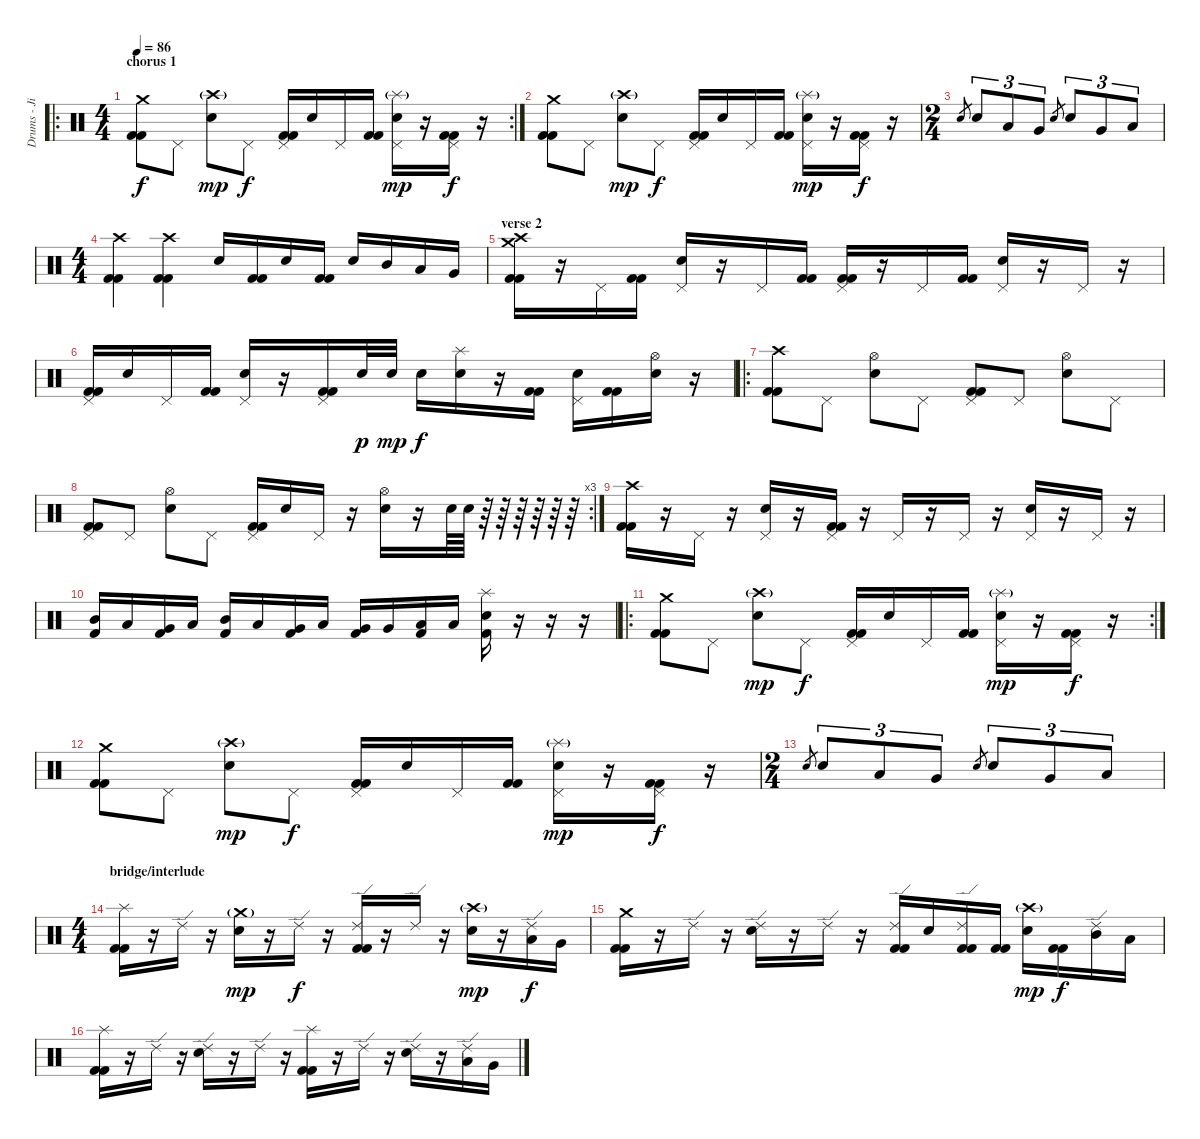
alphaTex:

\track ("Drums - Jimmy" "Drums - Ji") {instrument percussion}
\staff {score}
\articulation defaults
\ro
\rc 2
\ts (4 4)
\section ("" "chorus 1")
\tempo 86
\clef neutral
\ks c
("Crash medium (hit)" "Kick (hit) 2" "Kick (hit) 2").8{dy f} "Pedal Hi-Hat (hit)".8 ("Crash high (hit)"{g} "Electric Snare (hit)").8{dy mp} "Pedal Hi-Hat (hit)".8{dy f} ("Pedal Hi-Hat (hit)" "Kick (hit) 2" "Kick (hit) 2").16 "Electric Snare (hit)".16 "Pedal Hi-Hat (hit)".16 ("Kick (hit) 2" "Kick (hit) 2").16 ("Splash (hit)"{g} "Pedal Hi-Hat (hit)" "Electric Snare (hit)").16{dy mp} r.16 ("Pedal Hi-Hat (hit)" "Kick (hit) 2" "Kick (hit) 2").16{dy f} r.16 |
("Crash medium (hit)" "Kick (hit) 2" "Kick (hit) 2").8 "Pedal Hi-Hat (hit)".8 ("Crash high (hit)"{g} "Electric Snare (hit)").8{dy mp} "Pedal Hi-Hat (hit)".8{dy f} ("Pedal Hi-Hat (hit)" "Kick (hit) 2" "Kick (hit) 2").16 "Electric Snare (hit)".16 "Pedal Hi-Hat (hit)".16 ("Kick (hit) 2" "Kick (hit) 2").16 ("Splash (hit)"{g} "Pedal Hi-Hat (hit)" "Electric Snare (hit)").16{dy mp} r.16 ("Pedal Hi-Hat (hit)" "Kick (hit) 2" "Kick (hit) 2").16{dy f} r.16 |
\ts (2 4)
"Electric Snare (hit)".8{gr} "Electric Snare (hit)".8{tu (3 2)} "Low Tom (hit)".8{tu (3 2)} "Very Low Tom (hit)".8{tu (3 2)} "Electric Snare (hit)".8{gr} "Electric Snare (hit)".8{tu (3 2)} "Very Low Tom (hit)".8{tu (3 2)} "Low Floor Tom (hit)".8{tu (3 2)} |
\ts (4 4)
("Crash high (hit)" "Kick (hit) 2" "Kick (hit) 2").4 ("Crash high (hit)" "Kick (hit) 2" "Kick (hit) 2").4 "Electric Snare (hit)".16 ("Kick (hit) 2" "Kick (hit) 2").16 "Electric Snare (hit)".16 ("Kick (hit) 2" "Kick (hit) 2").16 "Electric Snare (hit)".16 "Mid Tom (hit)".16 "Low Tom (hit)".16 "Very Low Tom (hit)".16 |
\section ("" "verse 2")
("Crash medium (hit)" "Crash high (hit)" "Kick (hit) 2" "Kick (hit) 2").16 r.16 "Pedal Hi-Hat (hit)".16 ("Kick (hit) 2" "Kick (hit) 2").16 ("Pedal Hi-Hat (hit)" "Electric Snare (hit)").16 r.16 "Pedal Hi-Hat (hit)".16 ("Kick (hit) 2" "Kick (hit) 2").16 ("Pedal Hi-Hat (hit)" "Kick (hit) 2" "Kick (hit) 2").16 r.16 "Pedal Hi-Hat (hit)".16 ("Kick (hit) 2" "Kick (hit) 2").16 ("Pedal Hi-Hat (hit)" "Electric Snare (hit)").16 r.16 "Pedal Hi-Hat (hit)".16 r.16 |
("Pedal Hi-Hat (hit)" "Kick (hit) 2" "Kick (hit) 2").16 "Electric Snare (hit)".16 "Pedal Hi-Hat (hit)".16 ("Kick (hit) 2" "Kick (hit) 2").16 ("Pedal Hi-Hat (hit)" "Electric Snare (hit)").16 r.16 ("Pedal Hi-Hat (hit)" "Kick (hit) 2" "Kick (hit) 2").16 "Electric Snare (hit)".32{dy p} "Electric Snare (hit)".32{dy mp} "Electric Snare (hit)".16{dy f} ("Splash (hit)" "Electric Snare (hit)").16 r.16 ("Kick (hit) 2" "Kick (hit) 2").16 ("Pedal Hi-Hat (hit)" "Electric Snare (hit)").16 ("Kick (hit) 2" "Kick (hit) 2").16 ("Hi-Hat (open)" "Electric Snare (hit)").16 r.16 |
\ro
("Crash high (hit)" "Kick (hit) 2" "Kick (hit) 2").8 "Pedal Hi-Hat (hit)".8 ("Hi-Hat (open)" "Electric Snare (hit)").8 "Pedal Hi-Hat (hit)".8 ("Pedal Hi-Hat (hit)" "Kick (hit) 2" "Kick (hit) 2").8 "Pedal Hi-Hat (hit)".8 ("Hi-Hat (open)" "Electric Snare (hit)").8 "Pedal Hi-Hat (hit)".8 |
\rc 3
("Pedal Hi-Hat (hit)" "Kick (hit) 2" "Kick (hit) 2").8 "Pedal Hi-Hat (hit)".8 ("Hi-Hat (open)" "Electric Snare (hit)").8 "Pedal Hi-Hat (hit)".8 ("Pedal Hi-Hat (hit)" "Kick (hit) 2" "Kick (hit) 2").16 "Electric Snare (hit)".16 "Pedal Hi-Hat (hit)".16 r.16 ("Hi-Hat (open)" "Electric Snare (hit)").16 r.16 "Electric Snare (hit)".64 "Electric Snare (hit)".64 r.64 r.64 r.64 r.64 r.64 r.64 |
("Crash high (hit)" "Kick (hit) 2" "Kick (hit) 2").16 r.16 "Pedal Hi-Hat (hit)".16 r.16 ("Pedal Hi-Hat (hit)" "Electric Snare (hit)").16 r.16 ("Pedal Hi-Hat (hit)" "Kick (hit) 2" "Kick (hit) 2").16 r.16 "Pedal Hi-Hat (hit)".16 r.16 "Pedal Hi-Hat (hit)".16 r.16 ("Pedal Hi-Hat (hit)" "Electric Snare (hit)").16 r.16 "Pedal Hi-Hat (hit)".16 r.16 |
("Mid Tom (hit)" "Kick (hit) 2").16 "Low Tom (hit)".16 ("Very Low Tom (hit)" "Kick (hit) 2").16 "Low Floor Tom (hit)".16 ("Mid Tom (hit)" "Kick (hit) 2").16 "Low Tom (hit)".16 ("Very Low Tom (hit)" "Kick (hit) 2").16 "Low Floor Tom (hit)".16 ("Very Low Tom (hit)" "Kick (hit) 2").16 "Very Low Tom (hit)".16 ("Low Tom (hit)" "Kick (hit) 2").16 "Low Floor Tom (hit)".16 ("Splash (hit)" "Electric Snare (hit)" "Kick (hit) 2").16 r.16 r.16 r.16 |
\ro
\rc 2
("Crash medium (hit)" "Kick (hit) 2" "Kick (hit) 2").8 "Pedal Hi-Hat (hit)".8 ("Crash high (hit)"{g} "Electric Snare (hit)").8{dy mp} "Pedal Hi-Hat (hit)".8{dy f} ("Pedal Hi-Hat (hit)" "Kick (hit) 2" "Kick (hit) 2").16 "Electric Snare (hit)".16 "Pedal Hi-Hat (hit)".16 ("Kick (hit) 2" "Kick (hit) 2").16 ("Splash (hit)"{g} "Pedal Hi-Hat (hit)" "Electric Snare (hit)").16{dy mp} r.16 ("Pedal Hi-Hat (hit)" "Kick (hit) 2" "Kick (hit) 2").16{dy f} r.16 |
("Crash medium (hit)" "Kick (hit) 2" "Kick (hit) 2").8 "Pedal Hi-Hat (hit)".8 ("Crash high (hit)"{g} "Electric Snare (hit)").8{dy mp} "Pedal Hi-Hat (hit)".8{dy f} ("Pedal Hi-Hat (hit)" "Kick (hit) 2" "Kick (hit) 2").16 "Electric Snare (hit)".16 "Pedal Hi-Hat (hit)".16 ("Kick (hit) 2" "Kick (hit) 2").16 ("Splash (hit)"{g} "Pedal Hi-Hat (hit)" "Electric Snare (hit)").16{dy mp} r.16 ("Pedal Hi-Hat (hit)" "Kick (hit) 2" "Kick (hit) 2").16{dy f} r.16 |
\ts (2 4)
"Electric Snare (hit)".8{gr} "Electric Snare (hit)".8{tu (3 2)} "Low Tom (hit)".8{tu (3 2)} "Very Low Tom (hit)".8{tu (3 2)} "Electric Snare (hit)".8{gr} "Electric Snare (hit)".8{tu (3 2)} "Very Low Tom (hit)".8{tu (3 2)} "Low Floor Tom (hit)".8{tu (3 2)} |
\ts (4 4)
\section ("" "bridge/interlude")
("Splash (hit)" "Kick (hit) 2" "Kick (hit) 2").16 r.16 "Ride (edge) 2".16 r.16 ("Crash medium (hit)"{g} "Electric Snare (hit)").16{dy mp} r.16 "Ride (edge) 2".16{dy f} r.16 ("Ride (edge) 2" "Kick (hit) 2" "Kick (hit) 2").16 r.16 "Ride (edge) 2".16 r.16 ("Crash high (hit)"{g} "Electric Snare (hit)").16{dy mp} r.16 ("Ride (edge) 2" "Low Tom (hit)").16{dy f} "Very Low Tom (hit)".16 |
("Crash medium (hit)" "Kick (hit) 2" "Kick (hit) 2").16 r.16 "Ride (edge) 2".16 r.16 ("Ride (edge) 2" "Electric Snare (hit)").16 r.16 "Ride (edge) 2".16 r.16 ("Ride (edge) 2" "Kick (hit) 2" "Kick (hit) 2").16 "Electric Snare (hit)".16 ("Ride (edge) 2" "Kick (hit) 2" "Kick (hit) 2").16 ("Kick (hit) 2" "Kick (hit) 2").16 ("Crash high (hit)"{g} "Electric Snare (hit)").16{dy mp} ("Kick (hit) 2" "Kick (hit) 2").16{dy f} ("Ride (edge) 2" "Mid Tom (hit)").16 "Low Tom (hit)".16 |
("Splash (hit)" "Kick (hit) 2" "Kick (hit) 2").16 r.16 "Ride (edge) 2".16 r.16 ("Ride (edge) 2" "Electric Snare (hit)").16 r.16 "Ride (edge) 2".16 r.16 ("Splash (hit)" "Kick (hit) 2" "Kick (hit) 2").16 r.16 "Ride (edge) 2".16 r.16 ("Ride (edge) 2" "Electric Snare (hit)").16 r.16 ("Ride (edge) 2" "Low Tom (hit)").16 "Very Low Tom (hit)".16
